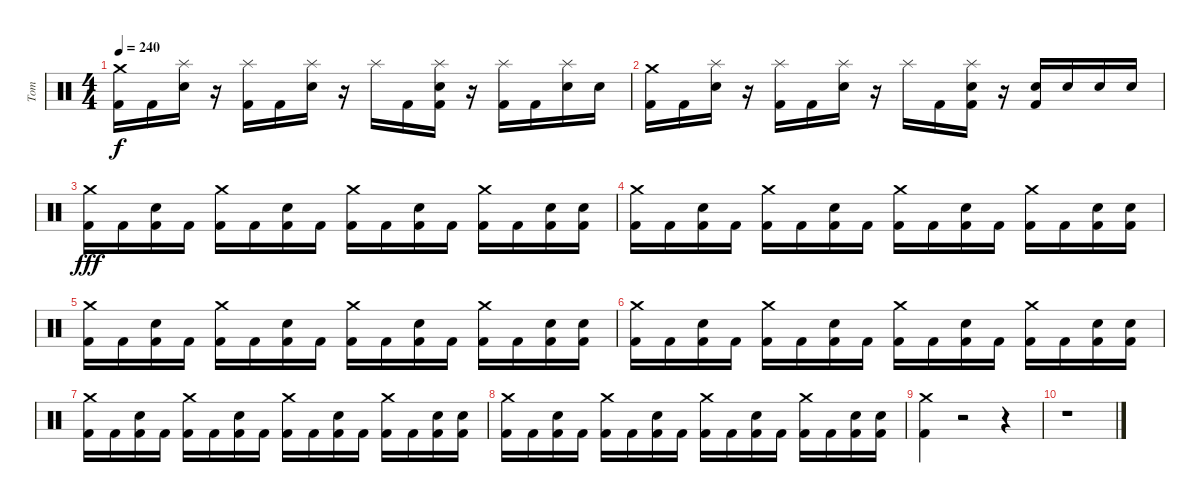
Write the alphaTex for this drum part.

\track ("Tom" "Tom") {instrument percussion}
\staff {score}
\articulation defaults
\ts (4 4)
\tempo 240
\clef neutral
\ks c
("Crash medium (hit)" "Kick (hit) 2").16{dy f} "Kick (hit) 2".16 ("Splash (hit)" "Electric Snare (hit)").16 r.16 ("Splash (hit)" "Kick (hit) 2").16 "Kick (hit) 2".16 ("Splash (hit)" "Electric Snare (hit)").16 r.16 "Splash (hit)".16 "Kick (hit) 2".16 ("Splash (hit)" "Electric Snare (hit)" "Kick (hit) 2").16 r.16 ("Splash (hit)" "Kick (hit) 2").16 "Kick (hit) 2".16 ("Splash (hit)" "Electric Snare (hit)").16 "Electric Snare (hit)".16 |
("Crash medium (hit)" "Kick (hit) 2").16 "Kick (hit) 2".16 ("Splash (hit)" "Electric Snare (hit)").16 r.16 ("Splash (hit)" "Kick (hit) 2").16 "Kick (hit) 2".16 ("Splash (hit)" "Electric Snare (hit)").16 r.16 "Splash (hit)".16 "Kick (hit) 2".16 ("Splash (hit)" "Electric Snare (hit)" "Kick (hit) 2").16 r.16 ("Electric Snare (hit)" "Kick (hit) 2").16 "Electric Snare (hit)".16 "Electric Snare (hit)".16 "Electric Snare (hit)".16 |
("Crash medium (hit)" "Kick (hit) 2").16{dy fff} "Kick (hit) 2".16 ("Electric Snare (hit)" "Kick (hit) 2").16 "Kick (hit) 2".16 ("Crash medium (hit)" "Kick (hit) 2").16 "Kick (hit) 2".16 ("Electric Snare (hit)" "Kick (hit) 2").16 "Kick (hit) 2".16 ("Crash medium (hit)" "Kick (hit) 2").16 "Kick (hit) 2".16 ("Electric Snare (hit)" "Kick (hit) 2").16 "Kick (hit) 2".16 ("Crash medium (hit)" "Kick (hit) 2").16 "Kick (hit) 2".16 ("Electric Snare (hit)" "Kick (hit) 2").16 ("Electric Snare (hit)" "Kick (hit) 2").16 |
("Crash medium (hit)" "Kick (hit) 2").16 "Kick (hit) 2".16 ("Electric Snare (hit)" "Kick (hit) 2").16 "Kick (hit) 2".16 ("Crash medium (hit)" "Kick (hit) 2").16 "Kick (hit) 2".16 ("Electric Snare (hit)" "Kick (hit) 2").16 "Kick (hit) 2".16 ("Crash medium (hit)" "Kick (hit) 2").16 "Kick (hit) 2".16 ("Electric Snare (hit)" "Kick (hit) 2").16 "Kick (hit) 2".16 ("Crash medium (hit)" "Kick (hit) 2").16 "Kick (hit) 2".16 ("Electric Snare (hit)" "Kick (hit) 2").16 ("Electric Snare (hit)" "Kick (hit) 2").16 |
("Crash medium (hit)" "Kick (hit) 2").16 "Kick (hit) 2".16 ("Electric Snare (hit)" "Kick (hit) 2").16 "Kick (hit) 2".16 ("Crash medium (hit)" "Kick (hit) 2").16 "Kick (hit) 2".16 ("Electric Snare (hit)" "Kick (hit) 2").16 "Kick (hit) 2".16 ("Crash medium (hit)" "Kick (hit) 2").16 "Kick (hit) 2".16 ("Electric Snare (hit)" "Kick (hit) 2").16 "Kick (hit) 2".16 ("Crash medium (hit)" "Kick (hit) 2").16 "Kick (hit) 2".16 ("Electric Snare (hit)" "Kick (hit) 2").16 ("Electric Snare (hit)" "Kick (hit) 2").16 |
("Crash medium (hit)" "Kick (hit) 2").16 "Kick (hit) 2".16 ("Electric Snare (hit)" "Kick (hit) 2").16 "Kick (hit) 2".16 ("Crash medium (hit)" "Kick (hit) 2").16 "Kick (hit) 2".16 ("Electric Snare (hit)" "Kick (hit) 2").16 "Kick (hit) 2".16 ("Crash medium (hit)" "Kick (hit) 2").16 "Kick (hit) 2".16 ("Electric Snare (hit)" "Kick (hit) 2").16 "Kick (hit) 2".16 ("Crash medium (hit)" "Kick (hit) 2").16 "Kick (hit) 2".16 ("Electric Snare (hit)" "Kick (hit) 2").16 ("Electric Snare (hit)" "Kick (hit) 2").16 |
("Crash medium (hit)" "Kick (hit) 2").16 "Kick (hit) 2".16 ("Electric Snare (hit)" "Kick (hit) 2").16 "Kick (hit) 2".16 ("Crash medium (hit)" "Kick (hit) 2").16 "Kick (hit) 2".16 ("Electric Snare (hit)" "Kick (hit) 2").16 "Kick (hit) 2".16 ("Crash medium (hit)" "Kick (hit) 2").16 "Kick (hit) 2".16 ("Electric Snare (hit)" "Kick (hit) 2").16 "Kick (hit) 2".16 ("Crash medium (hit)" "Kick (hit) 2").16 "Kick (hit) 2".16 ("Electric Snare (hit)" "Kick (hit) 2").16 ("Electric Snare (hit)" "Kick (hit) 2").16 |
("Crash medium (hit)" "Kick (hit) 2").16 "Kick (hit) 2".16 ("Electric Snare (hit)" "Kick (hit) 2").16 "Kick (hit) 2".16 ("Crash medium (hit)" "Kick (hit) 2").16 "Kick (hit) 2".16 ("Electric Snare (hit)" "Kick (hit) 2").16 "Kick (hit) 2".16 ("Crash medium (hit)" "Kick (hit) 2").16 "Kick (hit) 2".16 ("Electric Snare (hit)" "Kick (hit) 2").16 "Kick (hit) 2".16 ("Crash medium (hit)" "Kick (hit) 2").16 "Kick (hit) 2".16 ("Electric Snare (hit)" "Kick (hit) 2").16 ("Electric Snare (hit)" "Kick (hit) 2").16 |
("Crash medium (hit)" "Kick (hit) 2").4 r.2 r.4 |
r.1
